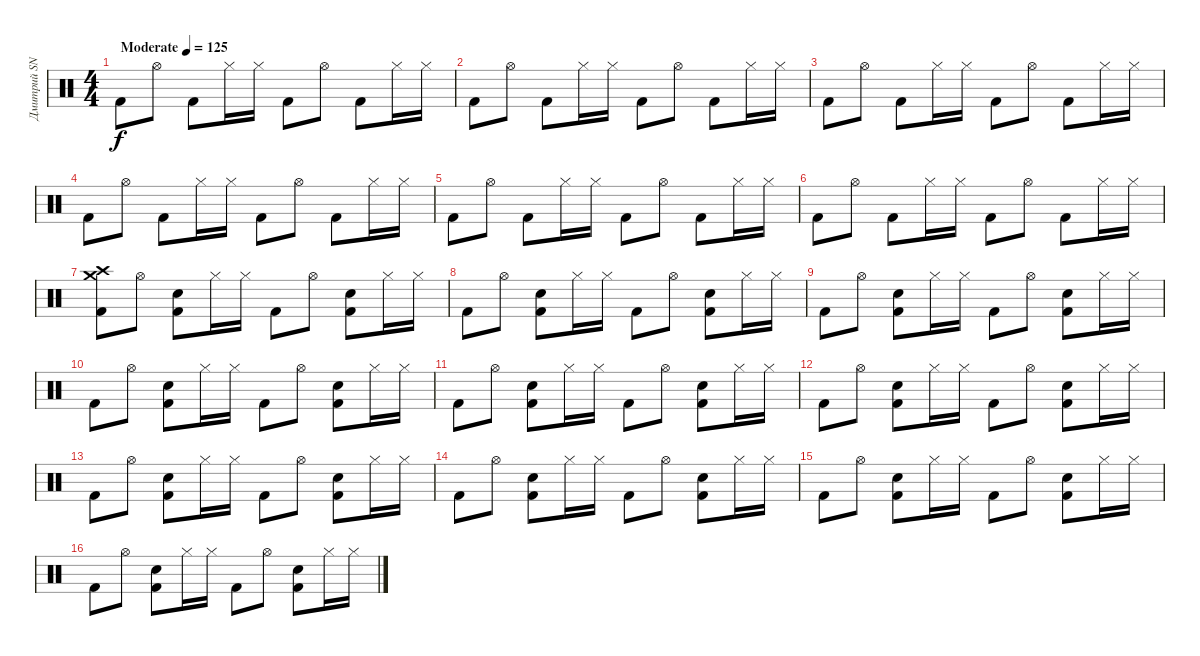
\track ("Дмитрий SNAKE Хакимов" "Дмитрий SN") {instrument percussion}
\staff {score}
\articulation defaults
\ts (4 4)
\tempo (125 "Moderate")
\clef neutral
\ks c "Kick (hit) 2".8{dy f} "Hi-Hat (open)".8 "Kick (hit) 2".8 "Hi-Hat (closed)".16 "Hi-Hat (closed)".16 "Kick (hit) 2".8 "Hi-Hat (open)".8 "Kick (hit) 2".8 "Hi-Hat (closed)".16 "Hi-Hat (closed)".16
|
"Kick (hit) 2".8 "Hi-Hat (open)".8 "Kick (hit) 2".8 "Hi-Hat (closed)".16 "Hi-Hat (closed)".16 "Kick (hit) 2".8 "Hi-Hat (open)".8 "Kick (hit) 2".8 "Hi-Hat (closed)".16 "Hi-Hat (closed)".16 |
"Kick (hit) 2".8 "Hi-Hat (open)".8 "Kick (hit) 2".8 "Hi-Hat (closed)".16 "Hi-Hat (closed)".16 "Kick (hit) 2".8 "Hi-Hat (open)".8 "Kick (hit) 2".8 "Hi-Hat (closed)".16 "Hi-Hat (closed)".16 |
"Kick (hit) 2".8 "Hi-Hat (open)".8 "Kick (hit) 2".8 "Hi-Hat (closed)".16 "Hi-Hat (closed)".16 "Kick (hit) 2".8 "Hi-Hat (open)".8 "Kick (hit) 2".8 "Hi-Hat (closed)".16 "Hi-Hat (closed)".16 |
"Kick (hit) 2".8 "Hi-Hat (open)".8 "Kick (hit) 2".8 "Hi-Hat (closed)".16 "Hi-Hat (closed)".16 "Kick (hit) 2".8 "Hi-Hat (open)".8 "Kick (hit) 2".8 "Hi-Hat (closed)".16 "Hi-Hat (closed)".16 |
"Kick (hit) 2".8 "Hi-Hat (open)".8 "Kick (hit) 2".8 "Hi-Hat (closed)".16 "Hi-Hat (closed)".16 "Kick (hit) 2".8 "Hi-Hat (open)".8 "Kick (hit) 2".8 "Hi-Hat (closed)".16 "Hi-Hat (closed)".16 |
("Crash high (hit)" "Crash medium (hit)" "Kick (hit) 2").8 "Hi-Hat (open)".8 ("Snare (hit) 2" "Kick (hit) 2").8 "Hi-Hat (closed)".16 "Hi-Hat (closed)".16 "Kick (hit) 2".8 "Hi-Hat (open)".8 ("Snare (hit) 2" "Kick (hit) 2").8 "Hi-Hat (closed)".16 "Hi-Hat (closed)".16 |
"Kick (hit) 2".8 "Hi-Hat (open)".8 ("Snare (hit) 2" "Kick (hit) 2").8 "Hi-Hat (closed)".16 "Hi-Hat (closed)".16 "Kick (hit) 2".8 "Hi-Hat (open)".8 ("Snare (hit) 2" "Kick (hit) 2").8 "Hi-Hat (closed)".16 "Hi-Hat (closed)".16 |
"Kick (hit) 2".8 "Hi-Hat (open)".8 ("Snare (hit) 2" "Kick (hit) 2").8 "Hi-Hat (closed)".16 "Hi-Hat (closed)".16 "Kick (hit) 2".8 "Hi-Hat (open)".8 ("Snare (hit) 2" "Kick (hit) 2").8 "Hi-Hat (closed)".16 "Hi-Hat (closed)".16 |
"Kick (hit) 2".8 "Hi-Hat (open)".8 ("Snare (hit) 2" "Kick (hit) 2").8 "Hi-Hat (closed)".16 "Hi-Hat (closed)".16 "Kick (hit) 2".8 "Hi-Hat (open)".8 ("Snare (hit) 2" "Kick (hit) 2").8 "Hi-Hat (closed)".16 "Hi-Hat (closed)".16 |
"Kick (hit) 2".8 "Hi-Hat (open)".8 ("Snare (hit) 2" "Kick (hit) 2").8 "Hi-Hat (closed)".16 "Hi-Hat (closed)".16 "Kick (hit) 2".8 "Hi-Hat (open)".8 ("Snare (hit) 2" "Kick (hit) 2").8 "Hi-Hat (closed)".16 "Hi-Hat (closed)".16 |
"Kick (hit) 2".8 "Hi-Hat (open)".8 ("Snare (hit) 2" "Kick (hit) 2").8 "Hi-Hat (closed)".16 "Hi-Hat (closed)".16 "Kick (hit) 2".8 "Hi-Hat (open)".8 ("Snare (hit) 2" "Kick (hit) 2").8 "Hi-Hat (closed)".16 "Hi-Hat (closed)".16 |
"Kick (hit) 2".8 "Hi-Hat (open)".8 ("Snare (hit) 2" "Kick (hit) 2").8 "Hi-Hat (closed)".16 "Hi-Hat (closed)".16 "Kick (hit) 2".8 "Hi-Hat (open)".8 ("Snare (hit) 2" "Kick (hit) 2").8 "Hi-Hat (closed)".16 "Hi-Hat (closed)".16 |
"Kick (hit) 2".8 "Hi-Hat (open)".8 ("Snare (hit) 2" "Kick (hit) 2").8 "Hi-Hat (closed)".16 "Hi-Hat (closed)".16 "Kick (hit) 2".8 "Hi-Hat (open)".8 ("Snare (hit) 2" "Kick (hit) 2").8 "Hi-Hat (closed)".16 "Hi-Hat (closed)".16 |
"Kick (hit) 2".8 "Hi-Hat (open)".8 ("Snare (hit) 2" "Kick (hit) 2").8 "Hi-Hat (closed)".16 "Hi-Hat (closed)".16 "Kick (hit) 2".8 "Hi-Hat (open)".8 ("Snare (hit) 2" "Kick (hit) 2").8 "Hi-Hat (closed)".16 "Hi-Hat (closed)".16 |
"Kick (hit) 2".8 "Hi-Hat (open)".8 ("Snare (hit) 2" "Kick (hit) 2").8 "Hi-Hat (closed)".16 "Hi-Hat (closed)".16 "Kick (hit) 2".8 "Hi-Hat (open)".8 ("Snare (hit) 2" "Kick (hit) 2").8 "Hi-Hat (closed)".16 "Hi-Hat (closed)".16
